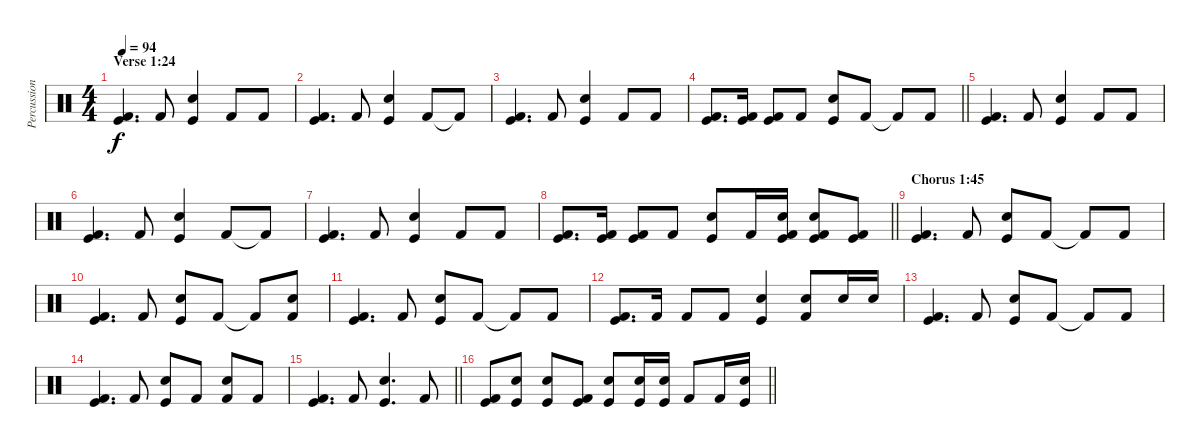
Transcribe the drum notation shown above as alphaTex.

\track ("Percussion" "Percussion") {instrument percussion}
\staff {score}
\articulation defaults
\ts (4 4)
\section ("" "Verse 1:24")
\tempo 94
\clef neutral
\ks c
("Kick (hit)" "Kick (hit) 2").4{d dy f} "Kick (hit) 2".8 ("Electric Snare (hit)" "Kick (hit)").4 "Kick (hit) 2".8 "Kick (hit) 2".8 |
("Kick (hit)" "Kick (hit) 2").4{d} "Kick (hit) 2".8 ("Electric Snare (hit)" "Kick (hit)").4 "Kick (hit) 2".8 "Kick (hit) 2"{t}.8 |
("Kick (hit)" "Kick (hit) 2").4{d} "Kick (hit) 2".8 ("Electric Snare (hit)" "Kick (hit)").4 "Kick (hit) 2".8 "Kick (hit) 2".8 |
\barLineRight lightlight
("Kick (hit)" "Kick (hit) 2").8{d} ("Kick (hit)" "Kick (hit) 2").16 ("Kick (hit)" "Kick (hit) 2").8 "Kick (hit) 2".8 ("Electric Snare (hit)" "Kick (hit)").8 "Kick (hit) 2".8 "Kick (hit) 2"{t}.8 "Kick (hit) 2".8 |
("Kick (hit)" "Kick (hit) 2").4{d} "Kick (hit) 2".8 ("Electric Snare (hit)" "Kick (hit)").4 "Kick (hit) 2".8 "Kick (hit) 2".8 |
("Kick (hit)" "Kick (hit) 2").4{d} "Kick (hit) 2".8 ("Electric Snare (hit)" "Kick (hit)").4 "Kick (hit) 2".8 "Kick (hit) 2"{t}.8 |
("Kick (hit)" "Kick (hit) 2").4{d} "Kick (hit) 2".8 ("Electric Snare (hit)" "Kick (hit)").4 "Kick (hit) 2".8 "Kick (hit) 2".8 |
\barLineRight lightlight
("Kick (hit)" "Kick (hit) 2").8{d} ("Kick (hit)" "Kick (hit) 2").16 ("Kick (hit)" "Kick (hit) 2").8 "Kick (hit) 2".8 ("Electric Snare (hit)" "Kick (hit)").8 "Kick (hit) 2".16 ("Electric Snare (hit)" "Kick (hit)" "Kick (hit) 2").16 ("Electric Snare (hit)" "Kick (hit)" "Kick (hit) 2").8 ("Kick (hit)" "Kick (hit) 2").8 |
\section ("" "Chorus 1:45")
("Kick (hit)" "Kick (hit) 2").4{d} "Kick (hit) 2".8 ("Electric Snare (hit)" "Kick (hit)").8 "Kick (hit) 2".8 "Kick (hit) 2"{t}.8 "Kick (hit) 2".8 |
("Kick (hit)" "Kick (hit) 2").4{d} "Kick (hit) 2".8 ("Electric Snare (hit)" "Kick (hit)").8 "Kick (hit) 2".8 "Kick (hit) 2"{t}.8 ("Electric Snare (hit)" "Kick (hit) 2").8 |
("Kick (hit)" "Kick (hit) 2").4{d} "Kick (hit) 2".8 ("Electric Snare (hit)" "Kick (hit)").8 "Kick (hit) 2".8 "Kick (hit) 2"{t}.8 "Kick (hit) 2".8 |
("Kick (hit)" "Kick (hit) 2").8{d} "Kick (hit) 2".16 "Kick (hit) 2".8 "Kick (hit) 2".8 ("Electric Snare (hit)" "Kick (hit)").4 ("Electric Snare (hit)" "Kick (hit) 2").8 "Electric Snare (hit)".16 "Electric Snare (hit)".16 |
("Kick (hit)" "Kick (hit) 2").4{d} "Kick (hit) 2".8 ("Electric Snare (hit)" "Kick (hit)").8 "Kick (hit) 2".8 "Kick (hit) 2"{t}.8 "Kick (hit) 2".8 |
("Kick (hit)" "Kick (hit) 2").4{d} "Kick (hit) 2".8 ("Electric Snare (hit)" "Kick (hit)").8 "Kick (hit) 2".8 ("Electric Snare (hit)" "Kick (hit) 2").8 "Kick (hit) 2".8 |
\barLineRight lightlight
("Kick (hit)" "Kick (hit) 2").4{d} "Kick (hit) 2".8 ("Electric Snare (hit)" "Kick (hit)").4{d} "Kick (hit) 2".8 |
\barLineRight lightlight
("Kick (hit)" "Kick (hit) 2").8 ("Electric Snare (hit)" "Kick (hit)").8 ("Electric Snare (hit)" "Kick (hit)").8 ("Kick (hit)" "Kick (hit) 2").8 ("Electric Snare (hit)" "Kick (hit)").8 ("Electric Snare (hit)" "Kick (hit)").16 ("Electric Snare (hit)" "Kick (hit)").16 "Kick (hit) 2".8 "Kick (hit) 2".16 ("Electric Snare (hit)" "Kick (hit)").16
